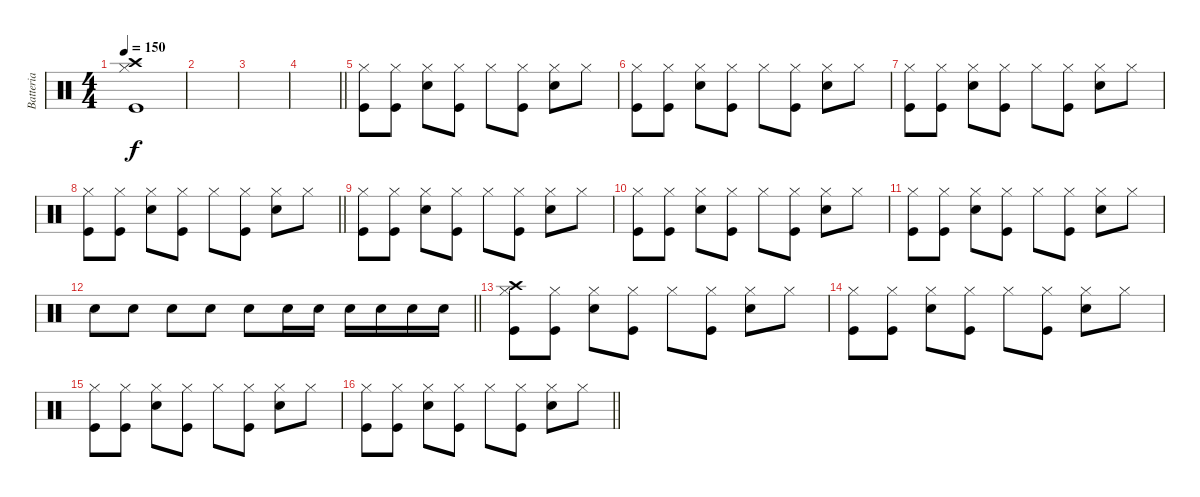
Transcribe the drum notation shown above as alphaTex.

\track ("Batteria" "Batteria") {instrument percussion}
\staff {score}
\articulation defaults
\ts (4 4)
\tempo 150
\clef neutral
\ks c
("Hi-Hat (closed)" "Crash high (hit)" "Kick (hit)").1{dy f} |
|
|
\barLineRight lightlight
|
("Hi-Hat (closed)" "Kick (hit)").8 ("Hi-Hat (closed)" "Kick (hit)").8 ("Hi-Hat (closed)" "Snare (hit) 2").8 ("Hi-Hat (closed)" "Kick (hit)").8 "Hi-Hat (closed)".8 ("Hi-Hat (closed)" "Kick (hit)").8 ("Hi-Hat (closed)" "Snare (hit) 2").8 "Hi-Hat (closed)".8 |
("Hi-Hat (closed)" "Kick (hit)").8 ("Hi-Hat (closed)" "Kick (hit)").8 ("Hi-Hat (closed)" "Snare (hit) 2").8 ("Hi-Hat (closed)" "Kick (hit)").8 "Hi-Hat (closed)".8 ("Hi-Hat (closed)" "Kick (hit)").8 ("Hi-Hat (closed)" "Snare (hit) 2").8 "Hi-Hat (closed)".8 |
("Hi-Hat (closed)" "Kick (hit)").8 ("Hi-Hat (closed)" "Kick (hit)").8 ("Hi-Hat (closed)" "Snare (hit) 2").8 ("Hi-Hat (closed)" "Kick (hit)").8 "Hi-Hat (closed)".8 ("Hi-Hat (closed)" "Kick (hit)").8 ("Hi-Hat (closed)" "Snare (hit) 2").8 "Hi-Hat (closed)".8 |
\barLineRight lightlight
("Hi-Hat (closed)" "Kick (hit)").8 ("Hi-Hat (closed)" "Kick (hit)").8 ("Hi-Hat (closed)" "Snare (hit) 2").8 ("Hi-Hat (closed)" "Kick (hit)").8 "Hi-Hat (closed)".8 ("Hi-Hat (closed)" "Kick (hit)").8 ("Hi-Hat (closed)" "Snare (hit) 2").8 "Hi-Hat (closed)".8 |
("Hi-Hat (closed)" "Kick (hit)").8 ("Hi-Hat (closed)" "Kick (hit)").8 ("Hi-Hat (closed)" "Snare (hit) 2").8 ("Hi-Hat (closed)" "Kick (hit)").8 "Hi-Hat (closed)".8 ("Hi-Hat (closed)" "Kick (hit)").8 ("Hi-Hat (closed)" "Snare (hit) 2").8 "Hi-Hat (closed)".8 |
("Hi-Hat (closed)" "Kick (hit)").8 ("Hi-Hat (closed)" "Kick (hit)").8 ("Hi-Hat (closed)" "Snare (hit) 2").8 ("Hi-Hat (closed)" "Kick (hit)").8 "Hi-Hat (closed)".8 ("Hi-Hat (closed)" "Kick (hit)").8 ("Hi-Hat (closed)" "Snare (hit) 2").8 "Hi-Hat (closed)".8 |
("Hi-Hat (closed)" "Kick (hit)").8 ("Hi-Hat (closed)" "Kick (hit)").8 ("Hi-Hat (closed)" "Snare (hit) 2").8 ("Hi-Hat (closed)" "Kick (hit)").8 "Hi-Hat (closed)".8 ("Hi-Hat (closed)" "Kick (hit)").8 ("Hi-Hat (closed)" "Snare (hit) 2").8 "Hi-Hat (closed)".8 |
\barLineRight lightlight "Snare (hit) 2".8 "Snare (hit) 2".8 "Snare (hit) 2".8 "Snare (hit) 2".8 "Snare (hit) 2".8 "Snare (hit) 2".16 "Snare (hit) 2".16 "Snare (hit) 2".16 "Snare (hit) 2".16 "Snare (hit) 2".16 "Snare (hit) 2".16
|
("Hi-Hat (closed)" "Crash high (hit)" "Kick (hit)").8 ("Hi-Hat (closed)" "Kick (hit)").8 ("Hi-Hat (closed)" "Snare (hit) 2").8 ("Hi-Hat (closed)" "Kick (hit)").8 "Hi-Hat (closed)".8 ("Hi-Hat (closed)" "Kick (hit)").8 ("Hi-Hat (closed)" "Snare (hit) 2").8 "Hi-Hat (closed)".8 |
("Hi-Hat (closed)" "Kick (hit)").8 ("Hi-Hat (closed)" "Kick (hit)").8 ("Hi-Hat (closed)" "Snare (hit) 2").8 ("Hi-Hat (closed)" "Kick (hit)").8 "Hi-Hat (closed)".8 ("Hi-Hat (closed)" "Kick (hit)").8 ("Hi-Hat (closed)" "Snare (hit) 2").8 "Hi-Hat (closed)".8 |
("Hi-Hat (closed)" "Kick (hit)").8 ("Hi-Hat (closed)" "Kick (hit)").8 ("Hi-Hat (closed)" "Snare (hit) 2").8 ("Hi-Hat (closed)" "Kick (hit)").8 "Hi-Hat (closed)".8 ("Hi-Hat (closed)" "Kick (hit)").8 ("Hi-Hat (closed)" "Snare (hit) 2").8 "Hi-Hat (closed)".8 |
\barLineRight lightlight
("Hi-Hat (closed)" "Kick (hit)").8 ("Hi-Hat (closed)" "Kick (hit)").8 ("Hi-Hat (closed)" "Snare (hit) 2").8 ("Hi-Hat (closed)" "Kick (hit)").8 "Hi-Hat (closed)".8 ("Hi-Hat (closed)" "Kick (hit)").8 ("Hi-Hat (closed)" "Snare (hit) 2").8 "Hi-Hat (closed)".8
